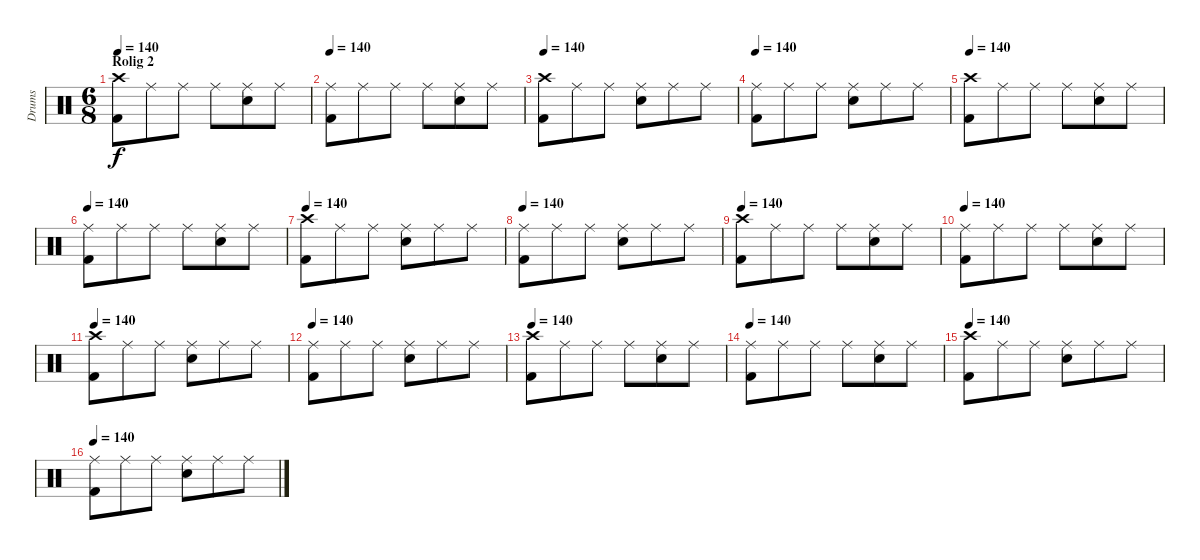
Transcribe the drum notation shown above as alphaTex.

\track ("Drums" "Drums") {instrument percussion}
\staff {score}
\articulation defaults
\ts (6 8)
\section ("" "Rolig 2")
\tempo 140
\clef neutral
\ks c
("Kick (hit) 2" "Crash high (hit)").8{dy f} "Ride (middle)".8 "Ride (middle)".8 "Ride (middle)".8 ("Electric Snare (hit)" "Ride (middle)").8 "Ride (middle)".8 |
\tempo 140
("Kick (hit) 2" "Ride (middle)").8 "Ride (middle)".8 "Ride (middle)".8 "Ride (middle)".8 ("Electric Snare (hit)" "Ride (middle)").8 "Ride (middle)".8 |
\tempo 140
("Kick (hit) 2" "Crash high (hit)").8 "Ride (middle)".8 "Ride (middle)".8 ("Electric Snare (hit)" "Ride (middle)").8 "Ride (middle)".8 "Ride (middle)".8 |
\tempo 140
("Kick (hit) 2" "Ride (middle)").8 "Ride (middle)".8 "Ride (middle)".8 ("Electric Snare (hit)" "Ride (middle)").8 "Ride (middle)".8 "Ride (middle)".8 |
\tempo 140
("Kick (hit) 2" "Crash high (hit)").8 "Ride (middle)".8 "Ride (middle)".8 "Ride (middle)".8 ("Electric Snare (hit)" "Ride (middle)").8 "Ride (middle)".8 |
\tempo 140
("Kick (hit) 2" "Ride (middle)").8 "Ride (middle)".8 "Ride (middle)".8 "Ride (middle)".8 ("Electric Snare (hit)" "Ride (middle)").8 "Ride (middle)".8 |
\tempo 140
("Kick (hit) 2" "Crash high (hit)").8 "Ride (middle)".8 "Ride (middle)".8 ("Electric Snare (hit)" "Ride (middle)").8 "Ride (middle)".8 "Ride (middle)".8 |
\tempo 140
("Kick (hit) 2" "Ride (middle)").8 "Ride (middle)".8 "Ride (middle)".8 ("Electric Snare (hit)" "Ride (middle)").8 "Ride (middle)".8 "Ride (middle)".8 |
\tempo 140
("Kick (hit) 2" "Crash high (hit)").8 "Ride (middle)".8 "Ride (middle)".8 "Ride (middle)".8 ("Electric Snare (hit)" "Ride (middle)").8 "Ride (middle)".8 |
\tempo 140
("Kick (hit) 2" "Ride (middle)").8 "Ride (middle)".8 "Ride (middle)".8 "Ride (middle)".8 ("Electric Snare (hit)" "Ride (middle)").8 "Ride (middle)".8 |
\tempo 140
("Kick (hit) 2" "Crash high (hit)").8 "Ride (middle)".8 "Ride (middle)".8 ("Electric Snare (hit)" "Ride (middle)").8 "Ride (middle)".8 "Ride (middle)".8 |
\tempo 140
("Kick (hit) 2" "Ride (middle)").8 "Ride (middle)".8 "Ride (middle)".8 ("Electric Snare (hit)" "Ride (middle)").8 "Ride (middle)".8 "Ride (middle)".8 |
\tempo 140
("Kick (hit) 2" "Crash high (hit)").8 "Ride (middle)".8 "Ride (middle)".8 "Ride (middle)".8 ("Electric Snare (hit)" "Ride (middle)").8 "Ride (middle)".8 |
\tempo 140
("Kick (hit) 2" "Ride (middle)").8 "Ride (middle)".8 "Ride (middle)".8 "Ride (middle)".8 ("Electric Snare (hit)" "Ride (middle)").8 "Ride (middle)".8 |
\tempo 140
("Kick (hit) 2" "Crash high (hit)").8 "Ride (middle)".8 "Ride (middle)".8 ("Electric Snare (hit)" "Ride (middle)").8 "Ride (middle)".8 "Ride (middle)".8 |
\tempo 140
("Kick (hit) 2" "Ride (middle)").8 "Ride (middle)".8 "Ride (middle)".8 ("Electric Snare (hit)" "Ride (middle)").8 "Ride (middle)".8 "Ride (middle)".8
